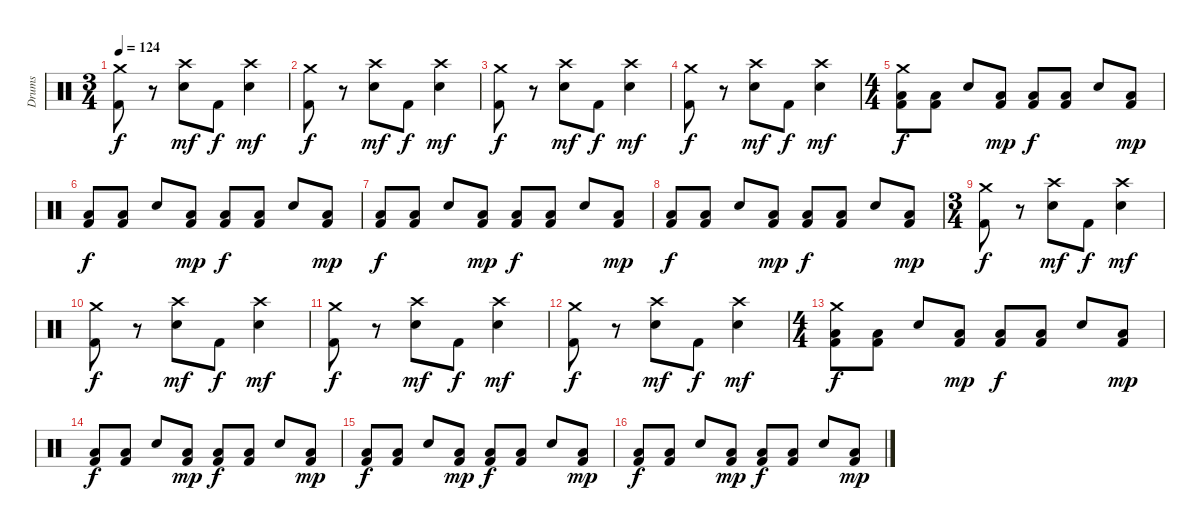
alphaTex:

\track ("Drums" "Drums") {instrument percussion}
\staff {score}
\articulation defaults
\ts (3 4)
\tempo 124
\clef neutral
\ks c
("Crash medium (hit)" "Kick (hit) 2").8{dy f} r.8 ("Crash high (hit)" "Snare (hit) 2").8{dy mf} "Kick (hit) 2".8{dy f} ("Crash high (hit)" "Snare (hit) 2").4{dy mf} |
("Crash medium (hit)" "Kick (hit) 2").8{dy f} r.8 ("Crash high (hit)" "Snare (hit) 2").8{dy mf} "Kick (hit) 2".8{dy f} ("Crash high (hit)" "Snare (hit) 2").4{dy mf} |
("Crash medium (hit)" "Kick (hit) 2").8{dy f} r.8 ("Crash high (hit)" "Snare (hit) 2").8{dy mf} "Kick (hit) 2".8{dy f} ("Crash high (hit)" "Snare (hit) 2").4{dy mf} |
("Crash medium (hit)" "Kick (hit) 2").8{dy f} r.8 ("Crash high (hit)" "Snare (hit) 2").8{dy mf} "Kick (hit) 2".8{dy f} ("Crash high (hit)" "Snare (hit) 2").4{dy mf} |
\ts (4 4)
("Crash medium (hit)" "Low Tom (hit)" "Kick (hit) 2").8{dy f} ("Low Tom (hit)" "Kick (hit) 2").8 "Snare (hit) 2".8 ("Low Tom (hit)" "Kick (hit) 2").8{dy mp} ("Low Tom (hit)" "Kick (hit) 2").8{dy f} ("Low Tom (hit)" "Kick (hit) 2").8 "Snare (hit) 2".8 ("Low Tom (hit)" "Kick (hit) 2").8{dy mp} |
("Low Tom (hit)" "Kick (hit) 2").8{dy f} ("Low Tom (hit)" "Kick (hit) 2").8 "Snare (hit) 2".8 ("Low Tom (hit)" "Kick (hit) 2").8{dy mp} ("Low Tom (hit)" "Kick (hit) 2").8{dy f} ("Low Tom (hit)" "Kick (hit) 2").8 "Snare (hit) 2".8 ("Low Tom (hit)" "Kick (hit) 2").8{dy mp} |
("Low Tom (hit)" "Kick (hit) 2").8{dy f} ("Low Tom (hit)" "Kick (hit) 2").8 "Snare (hit) 2".8 ("Low Tom (hit)" "Kick (hit) 2").8{dy mp} ("Low Tom (hit)" "Kick (hit) 2").8{dy f} ("Low Tom (hit)" "Kick (hit) 2").8 "Snare (hit) 2".8 ("Low Tom (hit)" "Kick (hit) 2").8{dy mp} |
("Low Tom (hit)" "Kick (hit) 2").8{dy f} ("Low Tom (hit)" "Kick (hit) 2").8 "Snare (hit) 2".8 ("Low Tom (hit)" "Kick (hit) 2").8{dy mp} ("Low Tom (hit)" "Kick (hit) 2").8{dy f} ("Low Tom (hit)" "Kick (hit) 2").8 "Snare (hit) 2".8 ("Low Tom (hit)" "Kick (hit) 2").8{dy mp} |
\ts (3 4)
("Crash medium (hit)" "Kick (hit) 2").8{dy f} r.8 ("Crash high (hit)" "Snare (hit) 2").8{dy mf} "Kick (hit) 2".8{dy f} ("Crash high (hit)" "Snare (hit) 2").4{dy mf} |
("Crash medium (hit)" "Kick (hit) 2").8{dy f} r.8 ("Crash high (hit)" "Snare (hit) 2").8{dy mf} "Kick (hit) 2".8{dy f} ("Crash high (hit)" "Snare (hit) 2").4{dy mf} |
("Crash medium (hit)" "Kick (hit) 2").8{dy f} r.8 ("Crash high (hit)" "Snare (hit) 2").8{dy mf} "Kick (hit) 2".8{dy f} ("Crash high (hit)" "Snare (hit) 2").4{dy mf} |
("Crash medium (hit)" "Kick (hit) 2").8{dy f} r.8 ("Crash high (hit)" "Snare (hit) 2").8{dy mf} "Kick (hit) 2".8{dy f} ("Crash high (hit)" "Snare (hit) 2").4{dy mf} |
\ts (4 4)
("Crash medium (hit)" "Low Tom (hit)" "Kick (hit) 2").8{dy f} ("Low Tom (hit)" "Kick (hit) 2").8 "Snare (hit) 2".8 ("Low Tom (hit)" "Kick (hit) 2").8{dy mp} ("Low Tom (hit)" "Kick (hit) 2").8{dy f} ("Low Tom (hit)" "Kick (hit) 2").8 "Snare (hit) 2".8 ("Low Tom (hit)" "Kick (hit) 2").8{dy mp} |
("Low Tom (hit)" "Kick (hit) 2").8{dy f} ("Low Tom (hit)" "Kick (hit) 2").8 "Snare (hit) 2".8 ("Low Tom (hit)" "Kick (hit) 2").8{dy mp} ("Low Tom (hit)" "Kick (hit) 2").8{dy f} ("Low Tom (hit)" "Kick (hit) 2").8 "Snare (hit) 2".8 ("Low Tom (hit)" "Kick (hit) 2").8{dy mp} |
("Low Tom (hit)" "Kick (hit) 2").8{dy f} ("Low Tom (hit)" "Kick (hit) 2").8 "Snare (hit) 2".8 ("Low Tom (hit)" "Kick (hit) 2").8{dy mp} ("Low Tom (hit)" "Kick (hit) 2").8{dy f} ("Low Tom (hit)" "Kick (hit) 2").8 "Snare (hit) 2".8 ("Low Tom (hit)" "Kick (hit) 2").8{dy mp} |
("Low Tom (hit)" "Kick (hit) 2").8{dy f} ("Low Tom (hit)" "Kick (hit) 2").8 "Snare (hit) 2".8 ("Low Tom (hit)" "Kick (hit) 2").8{dy mp} ("Low Tom (hit)" "Kick (hit) 2").8{dy f} ("Low Tom (hit)" "Kick (hit) 2").8 "Snare (hit) 2".8 ("Low Tom (hit)" "Kick (hit) 2").8{dy mp}
